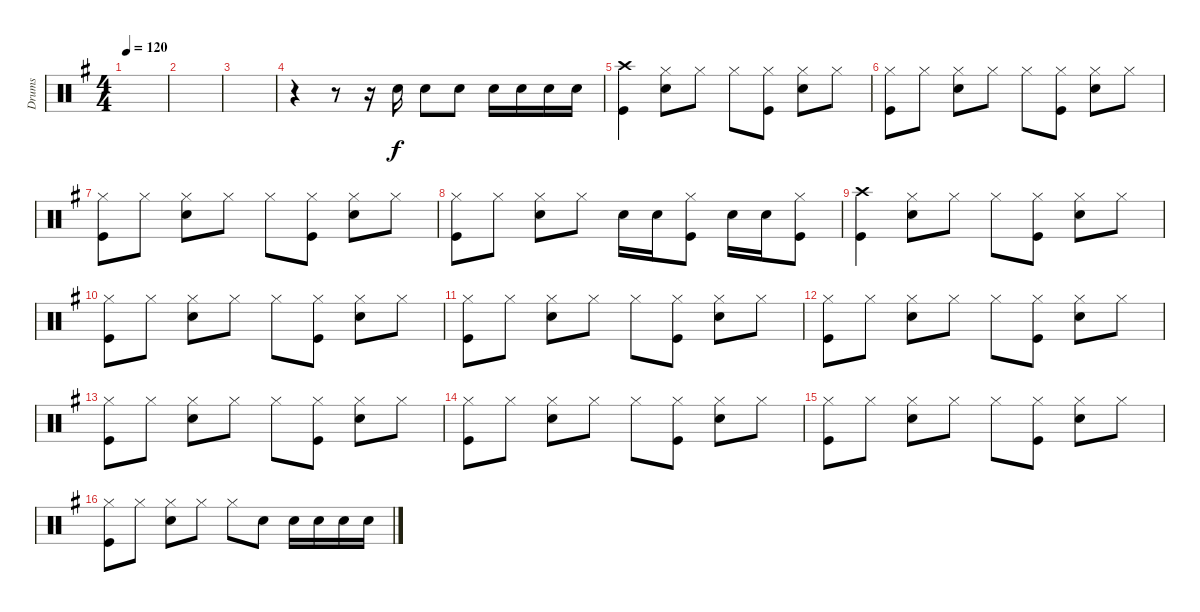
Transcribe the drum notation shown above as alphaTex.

\track ("Drums" "Drums") {instrument percussion}
\staff {score}
\articulation defaults
\ts (4 4)
\tempo 120
\clef neutral
\ks g
|
|
|
r.4 r.8 r.16 "Snare (hit) 2".16 "Snare (hit) 2".8 "Snare (hit) 2".8 "Snare (hit) 2".16 "Snare (hit) 2".16 "Snare (hit) 2".16 "Snare (hit) 2".16 |
("Crash high (hit)" "Kick (hit)").4 ("Hi-Hat (closed)" "Snare (hit) 2").8 "Hi-Hat (closed)".8 "Hi-Hat (closed)".8 ("Hi-Hat (closed)" "Kick (hit)").8 ("Hi-Hat (closed)" "Snare (hit) 2").8 "Hi-Hat (closed)".8 |
("Hi-Hat (closed)" "Kick (hit)").8 "Hi-Hat (closed)".8 ("Hi-Hat (closed)" "Snare (hit) 2").8 "Hi-Hat (closed)".8 "Hi-Hat (closed)".8 ("Hi-Hat (closed)" "Kick (hit)").8 ("Hi-Hat (closed)" "Snare (hit) 2").8 "Hi-Hat (closed)".8 |
("Hi-Hat (closed)" "Kick (hit)").8 "Hi-Hat (closed)".8 ("Hi-Hat (closed)" "Snare (hit) 2").8 "Hi-Hat (closed)".8 "Hi-Hat (closed)".8 ("Hi-Hat (closed)" "Kick (hit)").8 ("Hi-Hat (closed)" "Snare (hit) 2").8 "Hi-Hat (closed)".8 |
("Hi-Hat (closed)" "Kick (hit)").8 "Hi-Hat (closed)".8 ("Hi-Hat (closed)" "Snare (hit) 2").8 "Hi-Hat (closed)".8 "Snare (hit) 2".16 "Snare (hit) 2".16 ("Hi-Hat (closed)" "Kick (hit)").8 "Snare (hit) 2".16 "Snare (hit) 2".16 ("Hi-Hat (closed)" "Kick (hit)").8 |
("Crash high (hit)" "Kick (hit)").4 ("Hi-Hat (closed)" "Snare (hit) 2").8 "Hi-Hat (closed)".8 "Hi-Hat (closed)".8 ("Hi-Hat (closed)" "Kick (hit)").8 ("Hi-Hat (closed)" "Snare (hit) 2").8 "Hi-Hat (closed)".8 |
("Hi-Hat (closed)" "Kick (hit)").8 "Hi-Hat (closed)".8 ("Hi-Hat (closed)" "Snare (hit) 2").8 "Hi-Hat (closed)".8 "Hi-Hat (closed)".8 ("Hi-Hat (closed)" "Kick (hit)").8 ("Hi-Hat (closed)" "Snare (hit) 2").8 "Hi-Hat (closed)".8 |
("Hi-Hat (closed)" "Kick (hit)").8 "Hi-Hat (closed)".8 ("Hi-Hat (closed)" "Snare (hit) 2").8 "Hi-Hat (closed)".8 "Hi-Hat (closed)".8 ("Hi-Hat (closed)" "Kick (hit)").8 ("Hi-Hat (closed)" "Snare (hit) 2").8 "Hi-Hat (closed)".8 |
("Hi-Hat (closed)" "Kick (hit)").8 "Hi-Hat (closed)".8 ("Hi-Hat (closed)" "Snare (hit) 2").8 "Hi-Hat (closed)".8 "Hi-Hat (closed)".8 ("Hi-Hat (closed)" "Kick (hit)").8 ("Hi-Hat (closed)" "Snare (hit) 2").8 "Hi-Hat (closed)".8 |
("Hi-Hat (closed)" "Kick (hit)").8 "Hi-Hat (closed)".8 ("Hi-Hat (closed)" "Snare (hit) 2").8 "Hi-Hat (closed)".8 "Hi-Hat (closed)".8 ("Hi-Hat (closed)" "Kick (hit)").8 ("Hi-Hat (closed)" "Snare (hit) 2").8 "Hi-Hat (closed)".8 |
("Hi-Hat (closed)" "Kick (hit)").8 "Hi-Hat (closed)".8 ("Hi-Hat (closed)" "Snare (hit) 2").8 "Hi-Hat (closed)".8 "Hi-Hat (closed)".8 ("Hi-Hat (closed)" "Kick (hit)").8 ("Hi-Hat (closed)" "Snare (hit) 2").8 "Hi-Hat (closed)".8 |
("Hi-Hat (closed)" "Kick (hit)").8 "Hi-Hat (closed)".8 ("Hi-Hat (closed)" "Snare (hit) 2").8 "Hi-Hat (closed)".8 "Hi-Hat (closed)".8 ("Hi-Hat (closed)" "Kick (hit)").8 ("Hi-Hat (closed)" "Snare (hit) 2").8 "Hi-Hat (closed)".8 |
("Hi-Hat (closed)" "Kick (hit)").8 "Hi-Hat (closed)".8 ("Hi-Hat (closed)" "Snare (hit) 2").8 "Hi-Hat (closed)".8 "Hi-Hat (closed)".8 "Snare (hit) 2".8 "Snare (hit) 2".16 "Snare (hit) 2".16 "Snare (hit) 2".16 "Snare (hit) 2".16
